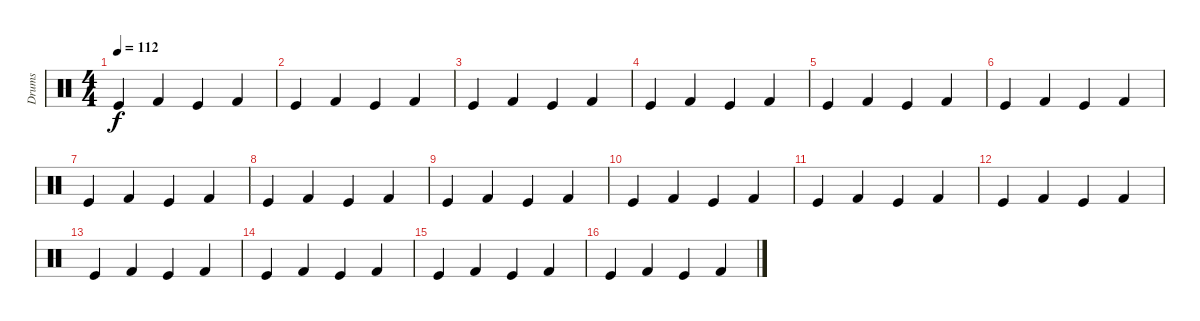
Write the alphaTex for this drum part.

\track ("Drums" "Drums") {instrument percussion}
\staff {score}
\articulation defaults
\ts (4 4)
\tempo 112
\clef neutral
\ks c "Kick (hit)".4{dy f} "Kick (hit) 2".4 "Kick (hit)".4 "Kick (hit) 2".4
|
"Kick (hit)".4 "Kick (hit) 2".4 "Kick (hit)".4 "Kick (hit) 2".4 |
"Kick (hit)".4 "Kick (hit) 2".4 "Kick (hit)".4 "Kick (hit) 2".4 |
"Kick (hit)".4 "Kick (hit) 2".4 "Kick (hit)".4 "Kick (hit) 2".4 |
"Kick (hit)".4 "Kick (hit) 2".4 "Kick (hit)".4 "Kick (hit) 2".4 |
"Kick (hit)".4 "Kick (hit) 2".4 "Kick (hit)".4 "Kick (hit) 2".4 |
"Kick (hit)".4 "Kick (hit) 2".4 "Kick (hit)".4 "Kick (hit) 2".4 |
"Kick (hit)".4 "Kick (hit) 2".4 "Kick (hit)".4 "Kick (hit) 2".4 |
"Kick (hit)".4 "Kick (hit) 2".4 "Kick (hit)".4 "Kick (hit) 2".4 |
"Kick (hit)".4 "Kick (hit) 2".4 "Kick (hit)".4 "Kick (hit) 2".4 |
"Kick (hit)".4 "Kick (hit) 2".4 "Kick (hit)".4 "Kick (hit) 2".4 |
"Kick (hit)".4 "Kick (hit) 2".4 "Kick (hit)".4 "Kick (hit) 2".4 |
"Kick (hit)".4 "Kick (hit) 2".4 "Kick (hit)".4 "Kick (hit) 2".4 |
"Kick (hit)".4 "Kick (hit) 2".4 "Kick (hit)".4 "Kick (hit) 2".4 |
"Kick (hit)".4 "Kick (hit) 2".4 "Kick (hit)".4 "Kick (hit) 2".4 |
"Kick (hit)".4 "Kick (hit) 2".4 "Kick (hit)".4 "Kick (hit) 2".4
